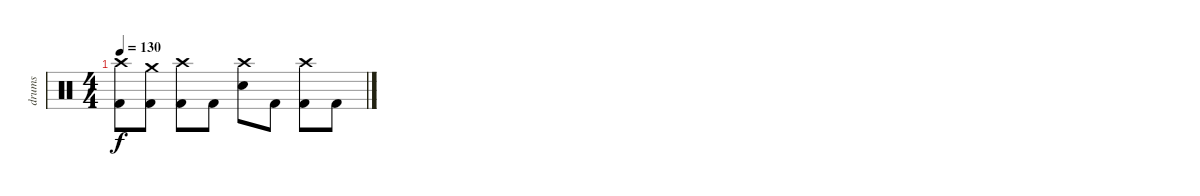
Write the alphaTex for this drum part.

\track ("drums" "drums") {instrument percussion}
\staff {score}
\articulation defaults
\ts (4 4)
\tempo 130
\clef neutral
\ks c
("Crash high (hit)" "Kick (hit) 2").8{dy f} ("Crash medium (hit)" "Kick (hit) 2").8 ("Crash high (hit)" "Kick (hit) 2").8 "Kick (hit) 2".8 ("Crash high (hit)" "Snare (hit) 2").8 "Kick (hit) 2".8 ("Crash high (hit)" "Kick (hit) 2").8 "Kick (hit) 2".8
